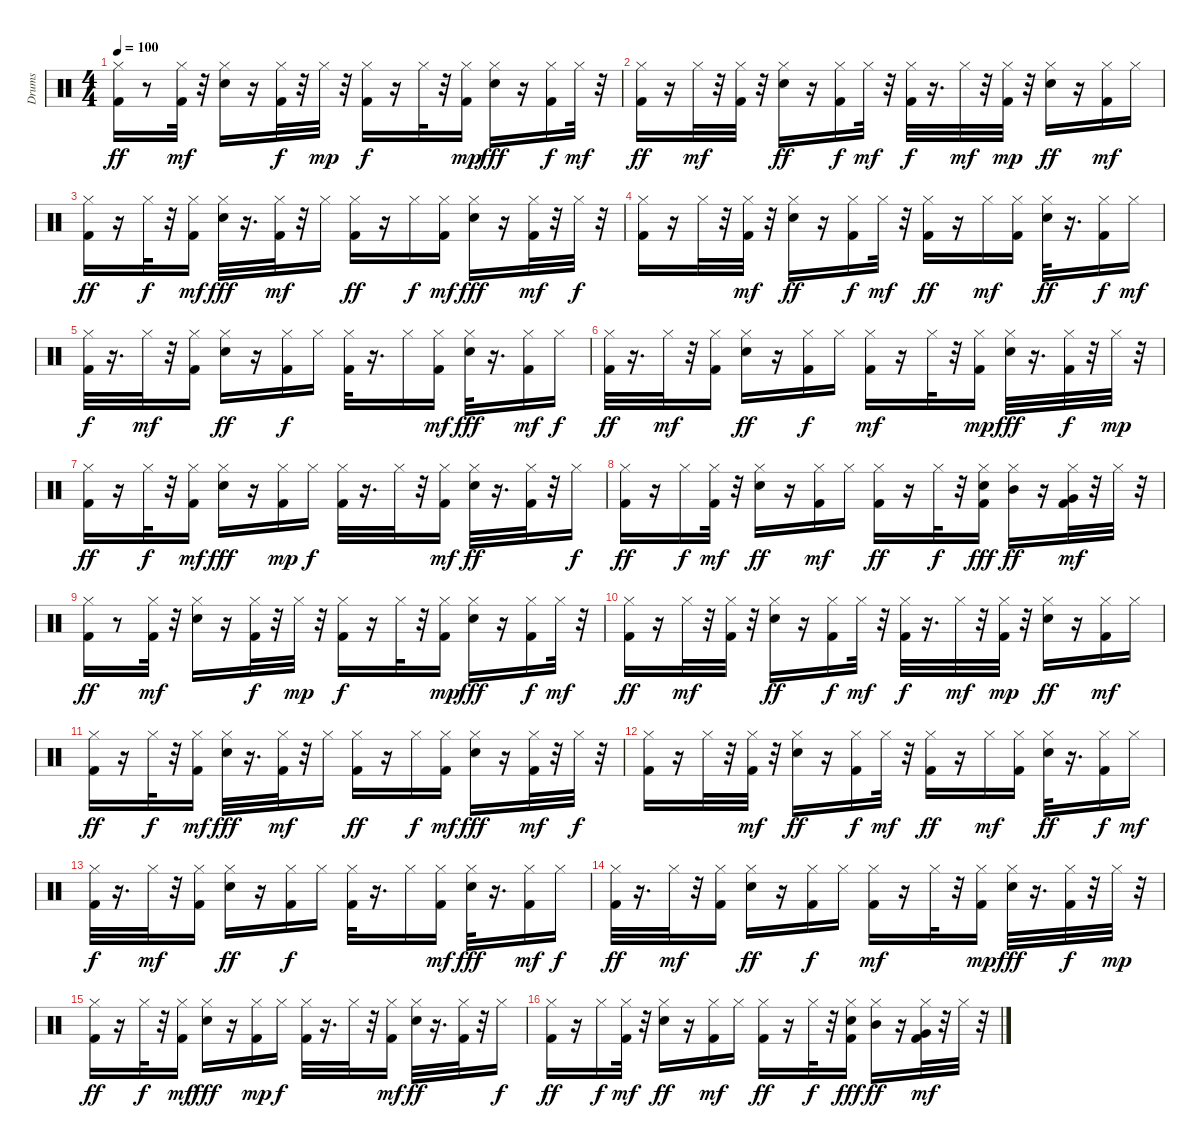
\track ("Drums" "Drums") {instrument percussion}
\staff {score}
\articulation defaults
\ts (4 4)
\tempo 100
\clef neutral
\ks c
("Kick (hit) 2" "Hi-Hat (closed)").16{dy ff} r.8 ("Hi-Hat (closed)" "Kick (hit) 2").32{dy mf} r.32 ("Snare (hit) 2" "Hi-Hat (closed)").16 r.16 ("Kick (hit) 2" "Hi-Hat (closed)").32{dy f} r.32 "Hi-Hat (closed)".32{dy mp} r.32 ("Kick (hit) 2" "Hi-Hat (closed)").16{dy f} r.16 "Hi-Hat (closed)".32 r.32 ("Kick (hit) 2" "Hi-Hat (closed)").16{dy mp} ("Hi-Hat (closed)" "Snare (hit) 2").16{dy fff} r.16 ("Kick (hit) 2" "Hi-Hat (closed)").16{dy f} "Hi-Hat (closed)".32{dy mf} r.32 |
("Kick (hit) 2" "Hi-Hat (closed)").16{dy ff} r.16 "Hi-Hat (closed)".32{dy mf} r.32 ("Kick (hit) 2" "Hi-Hat (closed)").32 r.32 ("Hi-Hat (closed)" "Snare (hit) 2").16{dy ff} r.16 ("Kick (hit) 2" "Hi-Hat (closed)").16{dy f} "Hi-Hat (closed)".32{dy mf} r.32 ("Kick (hit) 2" "Hi-Hat (closed)").32{dy f} r.16{d} "Hi-Hat (closed)".32{dy mf} r.32 ("Kick (hit) 2" "Hi-Hat (closed)").32{dy mp} r.32 ("Hi-Hat (closed)" "Snare (hit) 2").16{dy ff} r.16 ("Hi-Hat (closed)" "Kick (hit) 2").16{dy mf} "Hi-Hat (closed)".16 |
("Hi-Hat (closed)" "Kick (hit) 2").16{dy ff} r.16 "Hi-Hat (closed)".32{dy f} r.32 ("Kick (hit) 2" "Hi-Hat (closed)").16{dy mf} ("Hi-Hat (closed)" "Snare (hit) 2").32{dy fff} r.16{d} ("Kick (hit) 2" "Hi-Hat (closed)").32{dy mf} r.32 "Hi-Hat (closed)".16 ("Hi-Hat (closed)" "Kick (hit) 2").16{dy ff} r.16 "Hi-Hat (closed)".16{dy f} ("Kick (hit) 2" "Hi-Hat (closed)").16{dy mf} ("Hi-Hat (closed)" "Snare (hit) 2").16{dy fff} r.16 ("Kick (hit) 2" "Hi-Hat (closed)").32{dy mf} r.32 "Hi-Hat (closed)".32{dy f} r.32 |
("Hi-Hat (closed)" "Kick (hit) 2").16 r.16 "Hi-Hat (closed)".32 r.32 ("Kick (hit) 2" "Hi-Hat (closed)").32{dy mf} r.32 ("Hi-Hat (closed)" "Snare (hit) 2").16{dy ff} r.16 ("Kick (hit) 2" "Hi-Hat (closed)").16{dy f} "Hi-Hat (closed)".32{dy mf} r.32 ("Kick (hit) 2" "Hi-Hat (closed)").16{dy ff} r.16 "Hi-Hat (closed)".16{dy mf} ("Kick (hit) 2" "Hi-Hat (closed)").16 ("Hi-Hat (closed)" "Snare (hit) 2").32{dy ff} r.16{d} ("Kick (hit) 2" "Hi-Hat (closed)").16{dy f} "Hi-Hat (closed)".16{dy mf} |
("Kick (hit) 2" "Hi-Hat (closed)").32{dy f} r.16{d} "Hi-Hat (closed)".32{dy mf} r.32 ("Kick (hit) 2" "Hi-Hat (closed)").16 ("Hi-Hat (closed)" "Snare (hit) 2").16{dy ff} r.16 ("Kick (hit) 2" "Hi-Hat (closed)").16{dy f} "Hi-Hat (closed)".16 ("Kick (hit) 2" "Hi-Hat (closed)").32 r.16{d} "Hi-Hat (closed)".16 ("Kick (hit) 2" "Hi-Hat (closed)").16{dy mf} ("Hi-Hat (closed)" "Snare (hit) 2").32{dy fff} r.16{d} ("Kick (hit) 2" "Hi-Hat (closed)").16{dy mf} "Hi-Hat (closed)".16{dy f} |
("Kick (hit) 2" "Hi-Hat (closed)").32{dy ff} r.16{d} "Hi-Hat (closed)".32{dy mf} r.32 ("Kick (hit) 2" "Hi-Hat (closed)").16 ("Hi-Hat (closed)" "Snare (hit) 2").16{dy ff} r.16 ("Kick (hit) 2" "Hi-Hat (closed)").16{dy f} "Hi-Hat (closed)".16 ("Hi-Hat (closed)" "Kick (hit) 2").16{dy mf} r.16 "Hi-Hat (closed)".32 r.32 ("Kick (hit) 2" "Hi-Hat (closed)").16{dy mp} ("Hi-Hat (closed)" "Snare (hit) 2").32{dy fff} r.16{d} ("Kick (hit) 2" "Hi-Hat (closed)").32{dy f} r.32 "Hi-Hat (closed)".32{dy mp} r.32 |
("Kick (hit) 2" "Hi-Hat (closed)").16{dy ff} r.16 "Hi-Hat (closed)".32{dy f} r.32 ("Hi-Hat (closed)" "Kick (hit) 2").16{dy mf} ("Hi-Hat (closed)" "Snare (hit) 2").16{dy fff} r.16 ("Kick (hit) 2" "Hi-Hat (closed)").16{dy mp} "Hi-Hat (closed)".16{dy f} ("Kick (hit) 2" "Hi-Hat (closed)").32 r.16{d} "Hi-Hat (closed)".32 r.32 ("Kick (hit) 2" "Hi-Hat (closed)").16{dy mf} ("Hi-Hat (closed)" "Snare (hit) 2").32{dy ff} r.16{d} ("Kick (hit) 2" "Hi-Hat (closed)").32 r.32 "Hi-Hat (closed)".16{dy f} |
("Hi-Hat (closed)" "Kick (hit) 2").16{dy ff} r.16 "Hi-Hat (closed)".16{dy f} ("Kick (hit) 2" "Hi-Hat (closed)").32{dy mf} r.32 ("Hi-Hat (closed)" "Snare (hit) 2").16{dy ff} r.16 ("Hi-Hat (closed)" "Kick (hit) 2").16{dy mf} "Hi-Hat (closed)".16 ("Hi-Hat (closed)" "Kick (hit) 2").16{dy ff} r.16 "Hi-Hat (closed)".32{dy f} r.32 ("Hi-Hat (closed)" "Kick (hit) 2" "Snare (hit) 2").16{dy fff} ("Hi-Hat (closed)" "Mid Tom (hit)").16{dy ff} r.16 ("Kick (hit) 2" "Hi-Hat (closed)" "Very Low Tom (hit)").32{dy mf} r.32 "Hi-Hat (closed)".32 r.32 |
("Kick (hit) 2" "Hi-Hat (closed)").16{dy ff} r.8 ("Hi-Hat (closed)" "Kick (hit) 2").32{dy mf} r.32 ("Snare (hit) 2" "Hi-Hat (closed)").16 r.16 ("Kick (hit) 2" "Hi-Hat (closed)").32{dy f} r.32 "Hi-Hat (closed)".32{dy mp} r.32 ("Kick (hit) 2" "Hi-Hat (closed)").16{dy f} r.16 "Hi-Hat (closed)".32 r.32 ("Kick (hit) 2" "Hi-Hat (closed)").16{dy mp} ("Hi-Hat (closed)" "Snare (hit) 2").16{dy fff} r.16 ("Kick (hit) 2" "Hi-Hat (closed)").16{dy f} "Hi-Hat (closed)".32{dy mf} r.32 |
("Kick (hit) 2" "Hi-Hat (closed)").16{dy ff} r.16 "Hi-Hat (closed)".32{dy mf} r.32 ("Kick (hit) 2" "Hi-Hat (closed)").32 r.32 ("Hi-Hat (closed)" "Snare (hit) 2").16{dy ff} r.16 ("Kick (hit) 2" "Hi-Hat (closed)").16{dy f} "Hi-Hat (closed)".32{dy mf} r.32 ("Kick (hit) 2" "Hi-Hat (closed)").32{dy f} r.16{d} "Hi-Hat (closed)".32{dy mf} r.32 ("Kick (hit) 2" "Hi-Hat (closed)").32{dy mp} r.32 ("Hi-Hat (closed)" "Snare (hit) 2").16{dy ff} r.16 ("Hi-Hat (closed)" "Kick (hit) 2").16{dy mf} "Hi-Hat (closed)".16 |
("Hi-Hat (closed)" "Kick (hit) 2").16{dy ff} r.16 "Hi-Hat (closed)".32{dy f} r.32 ("Kick (hit) 2" "Hi-Hat (closed)").16{dy mf} ("Hi-Hat (closed)" "Snare (hit) 2").32{dy fff} r.16{d} ("Kick (hit) 2" "Hi-Hat (closed)").32{dy mf} r.32 "Hi-Hat (closed)".16 ("Hi-Hat (closed)" "Kick (hit) 2").16{dy ff} r.16 "Hi-Hat (closed)".16{dy f} ("Kick (hit) 2" "Hi-Hat (closed)").16{dy mf} ("Hi-Hat (closed)" "Snare (hit) 2").16{dy fff} r.16 ("Kick (hit) 2" "Hi-Hat (closed)").32{dy mf} r.32 "Hi-Hat (closed)".32{dy f} r.32 |
("Hi-Hat (closed)" "Kick (hit) 2").16 r.16 "Hi-Hat (closed)".32 r.32 ("Kick (hit) 2" "Hi-Hat (closed)").32{dy mf} r.32 ("Hi-Hat (closed)" "Snare (hit) 2").16{dy ff} r.16 ("Kick (hit) 2" "Hi-Hat (closed)").16{dy f} "Hi-Hat (closed)".32{dy mf} r.32 ("Kick (hit) 2" "Hi-Hat (closed)").16{dy ff} r.16 "Hi-Hat (closed)".16{dy mf} ("Kick (hit) 2" "Hi-Hat (closed)").16 ("Hi-Hat (closed)" "Snare (hit) 2").32{dy ff} r.16{d} ("Kick (hit) 2" "Hi-Hat (closed)").16{dy f} "Hi-Hat (closed)".16{dy mf} |
("Kick (hit) 2" "Hi-Hat (closed)").32{dy f} r.16{d} "Hi-Hat (closed)".32{dy mf} r.32 ("Kick (hit) 2" "Hi-Hat (closed)").16 ("Hi-Hat (closed)" "Snare (hit) 2").16{dy ff} r.16 ("Kick (hit) 2" "Hi-Hat (closed)").16{dy f} "Hi-Hat (closed)".16 ("Kick (hit) 2" "Hi-Hat (closed)").32 r.16{d} "Hi-Hat (closed)".16 ("Kick (hit) 2" "Hi-Hat (closed)").16{dy mf} ("Hi-Hat (closed)" "Snare (hit) 2").32{dy fff} r.16{d} ("Kick (hit) 2" "Hi-Hat (closed)").16{dy mf} "Hi-Hat (closed)".16{dy f} |
("Kick (hit) 2" "Hi-Hat (closed)").32{dy ff} r.16{d} "Hi-Hat (closed)".32{dy mf} r.32 ("Kick (hit) 2" "Hi-Hat (closed)").16 ("Hi-Hat (closed)" "Snare (hit) 2").16{dy ff} r.16 ("Kick (hit) 2" "Hi-Hat (closed)").16{dy f} "Hi-Hat (closed)".16 ("Hi-Hat (closed)" "Kick (hit) 2").16{dy mf} r.16 "Hi-Hat (closed)".32 r.32 ("Kick (hit) 2" "Hi-Hat (closed)").16{dy mp} ("Hi-Hat (closed)" "Snare (hit) 2").32{dy fff} r.16{d} ("Kick (hit) 2" "Hi-Hat (closed)").32{dy f} r.32 "Hi-Hat (closed)".32{dy mp} r.32 |
("Kick (hit) 2" "Hi-Hat (closed)").16{dy ff} r.16 "Hi-Hat (closed)".32{dy f} r.32 ("Hi-Hat (closed)" "Kick (hit) 2").16{dy mf} ("Hi-Hat (closed)" "Snare (hit) 2").16{dy fff} r.16 ("Kick (hit) 2" "Hi-Hat (closed)").16{dy mp} "Hi-Hat (closed)".16{dy f} ("Kick (hit) 2" "Hi-Hat (closed)").32 r.16{d} "Hi-Hat (closed)".32 r.32 ("Kick (hit) 2" "Hi-Hat (closed)").16{dy mf} ("Hi-Hat (closed)" "Snare (hit) 2").32{dy ff} r.16{d} ("Kick (hit) 2" "Hi-Hat (closed)").32 r.32 "Hi-Hat (closed)".16{dy f} |
("Hi-Hat (closed)" "Kick (hit) 2").16{dy ff} r.16 "Hi-Hat (closed)".16{dy f} ("Kick (hit) 2" "Hi-Hat (closed)").32{dy mf} r.32 ("Hi-Hat (closed)" "Snare (hit) 2").16{dy ff} r.16 ("Hi-Hat (closed)" "Kick (hit) 2").16{dy mf} "Hi-Hat (closed)".16 ("Hi-Hat (closed)" "Kick (hit) 2").16{dy ff} r.16 "Hi-Hat (closed)".32{dy f} r.32 ("Hi-Hat (closed)" "Kick (hit) 2" "Snare (hit) 2").16{dy fff} ("Hi-Hat (closed)" "Mid Tom (hit)").16{dy ff} r.16 ("Kick (hit) 2" "Hi-Hat (closed)" "Very Low Tom (hit)").32{dy mf} r.32 "Hi-Hat (closed)".32 r.32
